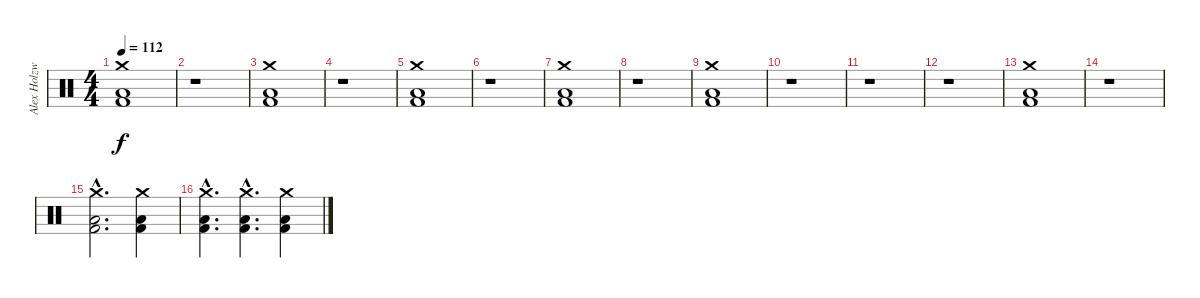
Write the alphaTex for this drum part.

\track ("Alex Holzwarth - Drums" "Alex Holzw") {instrument percussion}
\staff {score}
\articulation defaults
\ts (4 4)
\tempo 112
\clef neutral
\ks c
("Crash medium (hit)" "Low Floor Tom (hit)" "Kick (hit) 2").1{dy f} |
r.1 |
("Crash medium (hit)" "Low Floor Tom (hit)" "Kick (hit) 2").1 |
r.1 |
("Crash medium (hit)" "Low Floor Tom (hit)" "Kick (hit) 2").1 |
r.1 |
("Crash medium (hit)" "Low Floor Tom (hit)" "Kick (hit) 2").1 |
r.1 |
("Crash medium (hit)" "Low Floor Tom (hit)" "Kick (hit) 2").1 |
r.1 |
r.1 |
r.1 |
("Crash medium (hit)" "Low Floor Tom (hit)" "Kick (hit) 2").1 |
r.1 |
("Crash medium (hit)"{hac} "Low Floor Tom (hit)"{hac} "Kick (hit) 2"{hac}).2{d} ("Crash medium (hit)" "Low Floor Tom (hit)" "Kick (hit) 2").4 |
("Crash medium (hit)"{hac} "Low Floor Tom (hit)"{hac} "Kick (hit) 2"{hac}).4{d} ("Crash medium (hit)"{hac} "Low Floor Tom (hit)"{hac} "Kick (hit) 2"{hac}).4{d} ("Crash medium (hit)" "Low Floor Tom (hit)" "Kick (hit) 2").4
